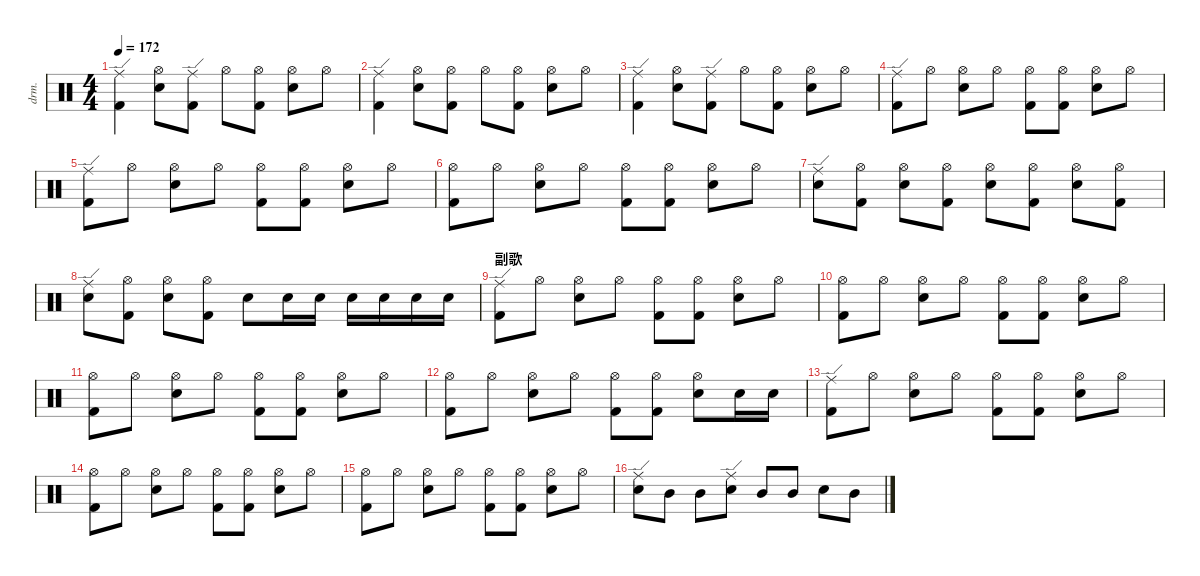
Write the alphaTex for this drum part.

\defaultSystemsLayout 4
\hideDynamics
\bracketExtendMode nobrackets
\track ("Drums" "drm.") {solo instrument percussion}
\staff {score}
\articulation defaults
\ts (4 4)
\tempo 172
\clef neutral
\ks c
("Kick (hit) 2" "Ride (edge)").4{dy ff beam Down} ("Snare (hit) 2" "Hi-Hat (open)").8{dy mf beam Down} ("Ride (edge)" "Kick (hit) 2").8{dy ff beam Down} "Hi-Hat (open)".8{dy mf beam Down} ("Hi-Hat (open)" "Kick (hit) 2").8{beam Down} ("Hi-Hat (open)" "Snare (hit) 2").8{beam Down} "Hi-Hat (open)".8{beam Down} |
("Kick (hit) 2" "Ride (edge)").4{dy ff beam Down} ("Snare (hit) 2" "Hi-Hat (open)").8{dy mf beam Down} ("Kick (hit) 2" "Hi-Hat (open)").8{beam Down} "Hi-Hat (open)".8{beam Down} ("Hi-Hat (open)" "Kick (hit) 2").8{beam Down} ("Hi-Hat (open)" "Snare (hit) 2").8{beam Down} "Hi-Hat (open)".8{beam Down} |
("Kick (hit) 2" "Ride (edge)").4{dy ff beam Down} ("Snare (hit) 2" "Hi-Hat (open)").8{dy mf beam Down} ("Ride (edge)" "Kick (hit) 2").8{dy ff beam Down} "Hi-Hat (open)".8{dy mf beam Down} ("Hi-Hat (open)" "Kick (hit) 2").8{beam Down} ("Hi-Hat (open)" "Snare (hit) 2").8{beam Down} "Hi-Hat (open)".8{beam Down} |
("Kick (hit) 2" "Ride (edge)").8{dy ff beam Down} "Hi-Hat (open)".8{dy mf beam Down} ("Hi-Hat (open)" "Snare (hit) 2").8{beam Down} "Hi-Hat (open)".8{beam Down} ("Hi-Hat (open)" "Kick (hit) 2").8{beam Down} ("Hi-Hat (open)" "Kick (hit) 2").8{beam Down} ("Hi-Hat (open)" "Snare (hit) 2").8{beam Down} "Hi-Hat (open)".8{beam Down} |
("Kick (hit) 2" "Ride (edge)").8{beam Down} "Hi-Hat (open)".8{beam Down} ("Hi-Hat (open)" "Snare (hit) 2").8{beam Down} "Hi-Hat (open)".8{beam Down} ("Hi-Hat (open)" "Kick (hit) 2").8{beam Down} ("Hi-Hat (open)" "Kick (hit) 2").8{beam Down} ("Hi-Hat (open)" "Snare (hit) 2").8{beam Down} "Hi-Hat (open)".8{beam Down} |
("Hi-Hat (open)" "Kick (hit) 2").8{beam Down} "Hi-Hat (open)".8{beam Down} ("Hi-Hat (open)" "Snare (hit) 2").8{beam Down} "Hi-Hat (open)".8{beam Down} ("Hi-Hat (open)" "Kick (hit) 2").8{beam Down} ("Hi-Hat (open)" "Kick (hit) 2").8{beam Down} ("Hi-Hat (open)" "Snare (hit) 2").8{beam Down} "Hi-Hat (open)".8{beam Down} |
("Snare (hit) 2" "Ride (edge)").8{beam Down} ("Kick (hit) 2" "Hi-Hat (open)").8{beam Down} ("Snare (hit) 2" "Hi-Hat (open)").8{beam Down} ("Kick (hit) 2" "Hi-Hat (open)").8{beam Down} ("Snare (hit) 2" "Hi-Hat (open)").8{beam Down} ("Kick (hit) 2" "Hi-Hat (open)").8{beam Down} ("Snare (hit) 2" "Hi-Hat (open)").8{beam Down} ("Kick (hit) 2" "Hi-Hat (open)").8{beam Down} |
("Snare (hit) 2" "Ride (edge)").8{beam Down} ("Kick (hit) 2" "Hi-Hat (open)").8{beam Down} ("Snare (hit) 2" "Hi-Hat (open)").8{beam Down} ("Kick (hit) 2" "Hi-Hat (open)").8{beam Down} "Snare (hit) 2".8{beam Down} "Snare (hit) 2".16{beam Down} "Snare (hit) 2".16{beam Down} "Snare (hit) 2".16{beam Down} "Snare (hit) 2".16{beam Down} "Snare (hit) 2".16{beam Down} "Snare (hit) 2".16{beam Down} |
\section ("" "副歌")
("Kick (hit) 2" "Ride (edge)").8{dy ff beam Down} "Hi-Hat (open)".8{dy mf beam Down} ("Snare (hit) 2" "Hi-Hat (open)").8{beam Down} "Hi-Hat (open)".8{beam Down} ("Kick (hit) 2" "Hi-Hat (open)").8{beam Down} ("Kick (hit) 2" "Hi-Hat (open)").8{beam Down} ("Snare (hit) 2" "Hi-Hat (open)").8{beam Down} "Hi-Hat (open)".8{beam Down} |
("Kick (hit) 2" "Hi-Hat (open)").8{beam Down} "Hi-Hat (open)".8{beam Down} ("Snare (hit) 2" "Hi-Hat (open)").8{beam Down} "Hi-Hat (open)".8{beam Down} ("Kick (hit) 2" "Hi-Hat (open)").8{beam Down} ("Kick (hit) 2" "Hi-Hat (open)").8{beam Down} ("Snare (hit) 2" "Hi-Hat (open)").8{beam Down} "Hi-Hat (open)".8{beam Down} |
("Kick (hit) 2" "Hi-Hat (open)").8{beam Down} "Hi-Hat (open)".8{beam Down} ("Snare (hit) 2" "Hi-Hat (open)").8{beam Down} "Hi-Hat (open)".8{beam Down} ("Kick (hit) 2" "Hi-Hat (open)").8{beam Down} ("Kick (hit) 2" "Hi-Hat (open)").8{beam Down} ("Snare (hit) 2" "Hi-Hat (open)").8{beam Down} "Hi-Hat (open)".8{beam Down} |
("Kick (hit) 2" "Hi-Hat (open)").8{beam Down} "Hi-Hat (open)".8{beam Down} ("Snare (hit) 2" "Hi-Hat (open)").8{beam Down} "Hi-Hat (open)".8{beam Down} ("Kick (hit) 2" "Hi-Hat (open)").8{beam Down} ("Kick (hit) 2" "Hi-Hat (open)").8{beam Down} ("Snare (hit) 2" "Hi-Hat (open)").8{beam Down} "Snare (hit) 2".16{beam Down} "Snare (hit) 2".16{beam Down} |
("Kick (hit) 2" "Ride (edge)").8{dy ff beam Down} "Hi-Hat (open)".8{dy mf beam Down} ("Snare (hit) 2" "Hi-Hat (open)").8{beam Down} "Hi-Hat (open)".8{beam Down} ("Kick (hit) 2" "Hi-Hat (open)").8{beam Down} ("Kick (hit) 2" "Hi-Hat (open)").8{beam Down} ("Snare (hit) 2" "Hi-Hat (open)").8{beam Down} "Hi-Hat (open)".8{beam Down} |
("Kick (hit) 2" "Hi-Hat (open)").8{beam Down} "Hi-Hat (open)".8{beam Down} ("Snare (hit) 2" "Hi-Hat (open)").8{beam Down} "Hi-Hat (open)".8{beam Down} ("Kick (hit) 2" "Hi-Hat (open)").8{beam Down} ("Kick (hit) 2" "Hi-Hat (open)").8{beam Down} ("Snare (hit) 2" "Hi-Hat (open)").8{beam Down} "Hi-Hat (open)".8{beam Down} |
("Kick (hit) 2" "Hi-Hat (open)").8{beam Down} "Hi-Hat (open)".8{beam Down} ("Snare (hit) 2" "Hi-Hat (open)").8{beam Down} "Hi-Hat (open)".8{beam Down} ("Kick (hit) 2" "Hi-Hat (open)").8{beam Down} ("Kick (hit) 2" "Hi-Hat (open)").8{beam Down} ("Snare (hit) 2" "Hi-Hat (open)").8{beam Down} "Hi-Hat (open)".8{beam Down} |
("Snare (hit) 2" "Ride (edge)").8{dy ff beam Down} "Mid Tom (hit)".8{dy mf beam Down} "Mid Tom (hit)".8{beam Down} ("Snare (hit) 2" "Ride (edge)").8{dy ff beam Down} "Mid Tom (hit)".8{dy mf beam Up} "Mid Tom (hit)".8{beam Up} "Snare (hit) 2".8{beam Down} "Mid Tom (hit)".8{beam Down}
